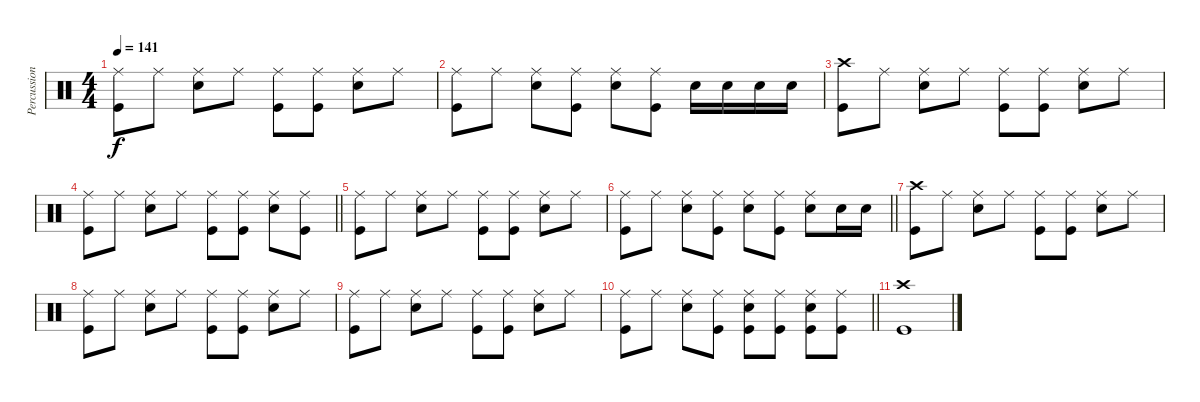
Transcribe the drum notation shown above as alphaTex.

\track ("Percussion" "Percussion") {instrument percussion}
\staff {score}
\articulation defaults
\ts (4 4)
\tempo 141
\clef neutral
\ks c
("Ride (middle)" "Kick (hit)").8{dy f} "Ride (middle)".8 ("Ride (middle)" "Snare (hit) 2").8 "Ride (middle)".8 ("Ride (middle)" "Kick (hit)").8 ("Ride (middle)" "Kick (hit)").8 ("Ride (middle)" "Snare (hit) 2").8 "Ride (middle)".8 |
("Ride (middle)" "Kick (hit)").8 "Ride (middle)".8 ("Ride (middle)" "Snare (hit) 2").8 ("Ride (middle)" "Kick (hit)").8 ("Ride (middle)" "Snare (hit) 2").8 ("Ride (middle)" "Kick (hit)").8 "Snare (hit) 2".16 "Snare (hit) 2".16 "Snare (hit) 2".16 "Snare (hit) 2".16 |
("Crash high (hit)" "Kick (hit)").8 "Ride (middle)".8 ("Ride (middle)" "Snare (hit) 2").8 "Ride (middle)".8 ("Ride (middle)" "Kick (hit)").8 ("Ride (middle)" "Kick (hit)").8 ("Ride (middle)" "Snare (hit) 2").8 "Ride (middle)".8 |
\barLineRight lightlight
("Ride (middle)" "Kick (hit)").8 "Ride (middle)".8 ("Ride (middle)" "Snare (hit) 2").8 "Ride (middle)".8 ("Ride (middle)" "Kick (hit)").8 ("Ride (middle)" "Kick (hit)").8 ("Ride (middle)" "Snare (hit) 2").8 ("Ride (middle)" "Kick (hit)").8 |
("Ride (middle)" "Kick (hit)").8 "Ride (middle)".8 ("Ride (middle)" "Snare (hit) 2").8 "Ride (middle)".8 ("Ride (middle)" "Kick (hit)").8 ("Ride (middle)" "Kick (hit)").8 ("Ride (middle)" "Snare (hit) 2").8 "Ride (middle)".8 |
\barLineRight lightlight
("Ride (middle)" "Kick (hit)").8 "Ride (middle)".8 ("Ride (middle)" "Snare (hit) 2").8 ("Ride (middle)" "Kick (hit)").8 ("Ride (middle)" "Snare (hit) 2").8 ("Ride (middle)" "Kick (hit)").8 ("Ride (middle)" "Snare (hit) 2").8 "Snare (hit) 2".16 "Snare (hit) 2".16 |
("Crash high (hit)" "Kick (hit)").8 "Ride (middle)".8 ("Ride (middle)" "Snare (hit) 2").8 "Ride (middle)".8 ("Ride (middle)" "Kick (hit)").8 ("Ride (middle)" "Kick (hit)").8 ("Ride (middle)" "Snare (hit) 2").8 "Ride (middle)".8 |
("Ride (middle)" "Kick (hit)").8 "Ride (middle)".8 ("Ride (middle)" "Snare (hit) 2").8 "Ride (middle)".8 ("Ride (middle)" "Kick (hit)").8 ("Ride (middle)" "Kick (hit)").8 ("Ride (middle)" "Snare (hit) 2").8 "Ride (middle)".8 |
("Ride (middle)" "Kick (hit)").8 "Ride (middle)".8 ("Ride (middle)" "Snare (hit) 2").8 "Ride (middle)".8 ("Ride (middle)" "Kick (hit)").8 ("Ride (middle)" "Kick (hit)").8 ("Ride (middle)" "Snare (hit) 2").8 "Ride (middle)".8 |
\barLineRight lightlight
("Ride (middle)" "Kick (hit)").8 "Ride (middle)".8 ("Ride (middle)" "Snare (hit) 2").8 ("Ride (middle)" "Kick (hit)").8 ("Ride (middle)" "Snare (hit) 2" "Kick (hit)").8 ("Ride (middle)" "Kick (hit)").8 ("Ride (middle)" "Snare (hit) 2" "Kick (hit)").8 ("Ride (middle)" "Kick (hit)").8 |
("Crash high (hit)" "Kick (hit)").1
